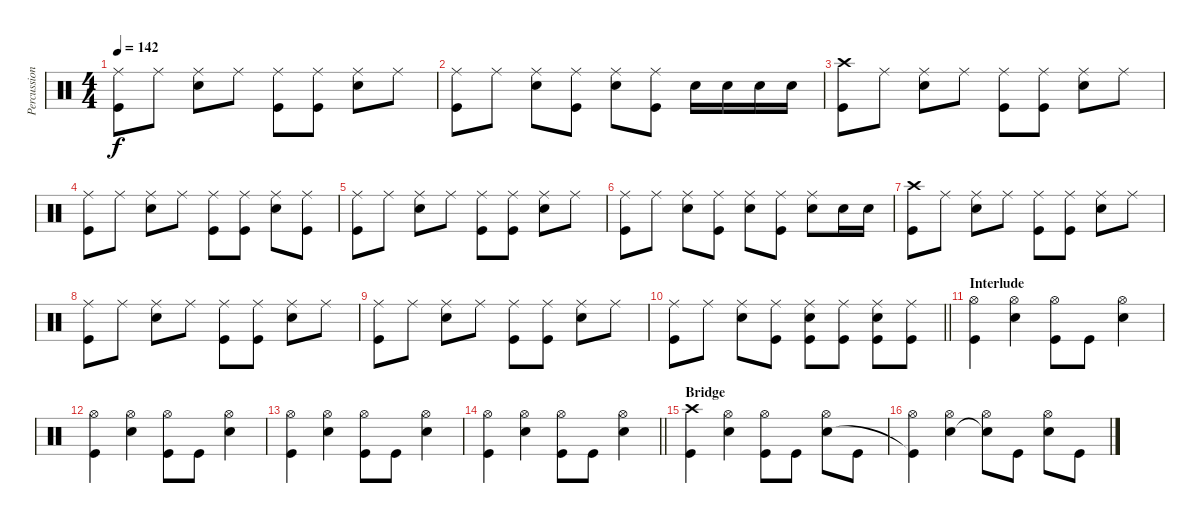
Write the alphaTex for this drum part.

\track ("Percussion" "Percussion") {instrument percussion}
\staff {score}
\articulation defaults
\ts (4 4)
\tempo 142
\clef neutral
\ks c
("Ride (middle)" "Kick (hit)").8{dy f} "Ride (middle)".8 ("Ride (middle)" "Snare (hit) 2").8 "Ride (middle)".8 ("Ride (middle)" "Kick (hit)").8 ("Ride (middle)" "Kick (hit)").8 ("Ride (middle)" "Snare (hit) 2").8 "Ride (middle)".8 |
("Ride (middle)" "Kick (hit)").8 "Ride (middle)".8 ("Ride (middle)" "Snare (hit) 2").8 ("Ride (middle)" "Kick (hit)").8 ("Ride (middle)" "Snare (hit) 2").8 ("Ride (middle)" "Kick (hit)").8 "Snare (hit) 2".16 "Snare (hit) 2".16 "Snare (hit) 2".16 "Snare (hit) 2".16 |
("Crash high (hit)" "Kick (hit)").8 "Ride (middle)".8 ("Ride (middle)" "Snare (hit) 2").8 "Ride (middle)".8 ("Ride (middle)" "Kick (hit)").8 ("Ride (middle)" "Kick (hit)").8 ("Ride (middle)" "Snare (hit) 2").8 "Ride (middle)".8 |
("Ride (middle)" "Kick (hit)").8 "Ride (middle)".8 ("Ride (middle)" "Snare (hit) 2").8 "Ride (middle)".8 ("Ride (middle)" "Kick (hit)").8 ("Ride (middle)" "Kick (hit)").8 ("Ride (middle)" "Snare (hit) 2").8 ("Ride (middle)" "Kick (hit)").8 |
("Ride (middle)" "Kick (hit)").8 "Ride (middle)".8 ("Ride (middle)" "Snare (hit) 2").8 "Ride (middle)".8 ("Ride (middle)" "Kick (hit)").8 ("Ride (middle)" "Kick (hit)").8 ("Ride (middle)" "Snare (hit) 2").8 "Ride (middle)".8 |
("Ride (middle)" "Kick (hit)").8 "Ride (middle)".8 ("Ride (middle)" "Snare (hit) 2").8 ("Ride (middle)" "Kick (hit)").8 ("Ride (middle)" "Snare (hit) 2").8 ("Ride (middle)" "Kick (hit)").8 ("Ride (middle)" "Snare (hit) 2").8 "Snare (hit) 2".16 "Snare (hit) 2".16 |
("Crash high (hit)" "Kick (hit)").8 "Ride (middle)".8 ("Ride (middle)" "Snare (hit) 2").8 "Ride (middle)".8 ("Ride (middle)" "Kick (hit)").8 ("Ride (middle)" "Kick (hit)").8 ("Ride (middle)" "Snare (hit) 2").8 "Ride (middle)".8 |
("Ride (middle)" "Kick (hit)").8 "Ride (middle)".8 ("Ride (middle)" "Snare (hit) 2").8 "Ride (middle)".8 ("Ride (middle)" "Kick (hit)").8 ("Ride (middle)" "Kick (hit)").8 ("Ride (middle)" "Snare (hit) 2").8 "Ride (middle)".8 |
("Ride (middle)" "Kick (hit)").8 "Ride (middle)".8 ("Ride (middle)" "Snare (hit) 2").8 "Ride (middle)".8 ("Ride (middle)" "Kick (hit)").8 ("Ride (middle)" "Kick (hit)").8 ("Ride (middle)" "Snare (hit) 2").8 "Ride (middle)".8 |
\barLineRight lightlight
("Ride (middle)" "Kick (hit)").8 "Ride (middle)".8 ("Ride (middle)" "Snare (hit) 2").8 ("Ride (middle)" "Kick (hit)").8 ("Ride (middle)" "Snare (hit) 2" "Kick (hit)").8 ("Ride (middle)" "Kick (hit)").8 ("Ride (middle)" "Snare (hit) 2" "Kick (hit)").8 ("Ride (middle)" "Kick (hit)").8 |
\section ("" "Interlude")
("Hi-Hat (open)" "Kick (hit)").4 ("Hi-Hat (open)" "Snare (hit) 2").4 ("Hi-Hat (open)" "Kick (hit)").8 "Kick (hit)".8 ("Hi-Hat (open)" "Snare (hit) 2").4 |
("Hi-Hat (open)" "Kick (hit)").4 ("Hi-Hat (open)" "Snare (hit) 2").4 ("Hi-Hat (open)" "Kick (hit)").8 "Kick (hit)".8 ("Hi-Hat (open)" "Snare (hit) 2").4 |
("Hi-Hat (open)" "Kick (hit)").4 ("Hi-Hat (open)" "Snare (hit) 2").4 ("Hi-Hat (open)" "Kick (hit)").8 "Kick (hit)".8 ("Hi-Hat (open)" "Snare (hit) 2").4 |
\barLineRight lightlight
("Hi-Hat (open)" "Kick (hit)").4 ("Hi-Hat (open)" "Snare (hit) 2").4 ("Hi-Hat (open)" "Kick (hit)").8 "Kick (hit)".8 ("Hi-Hat (open)" "Snare (hit) 2").4 |
\section ("" "Bridge")
("Kick (hit)" "Crash high (hit)").4 ("Electric Snare (hit)" "Hi-Hat (open)").4 ("Hi-Hat (open)" "Kick (hit)").8 "Kick (hit)".8 ("Hi-Hat (open)" "Snare (hit) 2").8 "Kick (hit)".8 |
("Hi-Hat (open)" "Kick (hit)"{t}).4 ("Hi-Hat (open)" "Snare (hit) 2").4 ("Hi-Hat (open)" "Snare (hit) 2"{t}).8 "Kick (hit)".8 ("Hi-Hat (open)" "Snare (hit) 2").8 "Kick (hit)".8
